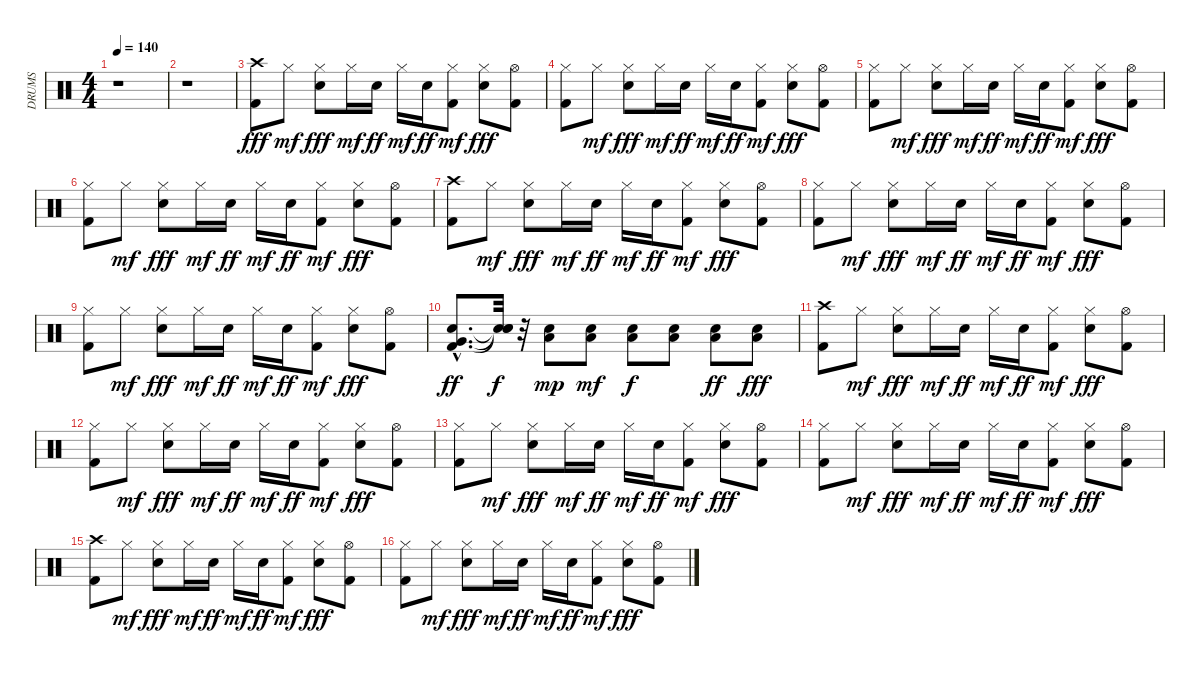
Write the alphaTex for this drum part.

\track ("DRUMS" "DRUMS") {instrument percussion}
\staff {score}
\articulation defaults
\ts (4 4)
\tempo 140
\clef neutral
\ks c
r.1{dy fff} |
r.1 |
("Kick (hit) 2" "Crash high (hit)").8 "Hi-Hat (closed)".8{dy mf} ("Hi-Hat (closed)" "Electric Snare (hit)").8{dy fff} "Hi-Hat (closed)".16{dy mf} "Electric Snare (hit)".16{dy ff} "Hi-Hat (closed)".16{dy mf} "Electric Snare (hit)".16{dy ff} ("Kick (hit) 2" "Hi-Hat (closed)").8{dy mf} ("Hi-Hat (closed)" "Electric Snare (hit)").8{dy fff} ("Kick (hit) 2" "Hi-Hat (open)").8 |
("Kick (hit) 2" "Hi-Hat (closed)").8 "Hi-Hat (closed)".8{dy mf} ("Hi-Hat (closed)" "Electric Snare (hit)").8{dy fff} "Hi-Hat (closed)".16{dy mf} "Electric Snare (hit)".16{dy ff} "Hi-Hat (closed)".16{dy mf} "Electric Snare (hit)".16{dy ff} ("Kick (hit) 2" "Hi-Hat (closed)").8{dy mf} ("Hi-Hat (closed)" "Electric Snare (hit)").8{dy fff} ("Kick (hit) 2" "Hi-Hat (open)").8 |
("Kick (hit) 2" "Hi-Hat (closed)").8 "Hi-Hat (closed)".8{dy mf} ("Hi-Hat (closed)" "Electric Snare (hit)").8{dy fff} "Hi-Hat (closed)".16{dy mf} "Electric Snare (hit)".16{dy ff} "Hi-Hat (closed)".16{dy mf} "Electric Snare (hit)".16{dy ff} ("Kick (hit) 2" "Hi-Hat (closed)").8{dy mf} ("Hi-Hat (closed)" "Electric Snare (hit)").8{dy fff} ("Kick (hit) 2" "Hi-Hat (open)").8 |
("Kick (hit) 2" "Hi-Hat (closed)").8 "Hi-Hat (closed)".8{dy mf} ("Hi-Hat (closed)" "Electric Snare (hit)").8{dy fff} "Hi-Hat (closed)".16{dy mf} "Electric Snare (hit)".16{dy ff} "Hi-Hat (closed)".16{dy mf} "Electric Snare (hit)".16{dy ff} ("Kick (hit) 2" "Hi-Hat (closed)").8{dy mf} ("Hi-Hat (closed)" "Electric Snare (hit)").8{dy fff} ("Kick (hit) 2" "Hi-Hat (open)").8 |
("Kick (hit) 2" "Crash high (hit)").8 "Hi-Hat (closed)".8{dy mf} ("Hi-Hat (closed)" "Electric Snare (hit)").8{dy fff} "Hi-Hat (closed)".16{dy mf} "Electric Snare (hit)".16{dy ff} "Hi-Hat (closed)".16{dy mf} "Electric Snare (hit)".16{dy ff} ("Kick (hit) 2" "Hi-Hat (closed)").8{dy mf} ("Hi-Hat (closed)" "Electric Snare (hit)").8{dy fff} ("Kick (hit) 2" "Hi-Hat (open)").8 |
("Kick (hit) 2" "Hi-Hat (closed)").8 "Hi-Hat (closed)".8{dy mf} ("Hi-Hat (closed)" "Electric Snare (hit)").8{dy fff} "Hi-Hat (closed)".16{dy mf} "Electric Snare (hit)".16{dy ff} "Hi-Hat (closed)".16{dy mf} "Electric Snare (hit)".16{dy ff} ("Kick (hit) 2" "Hi-Hat (closed)").8{dy mf} ("Hi-Hat (closed)" "Electric Snare (hit)").8{dy fff} ("Kick (hit) 2" "Hi-Hat (open)").8 |
("Kick (hit) 2" "Hi-Hat (closed)").8 "Hi-Hat (closed)".8{dy mf} ("Hi-Hat (closed)" "Electric Snare (hit)").8{dy fff} "Hi-Hat (closed)".16{dy mf} "Electric Snare (hit)".16{dy ff} "Hi-Hat (closed)".16{dy mf} "Electric Snare (hit)".16{dy ff} ("Kick (hit) 2" "Hi-Hat (closed)").8{dy mf} ("Hi-Hat (closed)" "Electric Snare (hit)").8{dy fff} ("Kick (hit) 2" "Hi-Hat (open)").8 |
("Kick (hit) 2"{hac} "Electric Snare (hit)"{hac} "Very Low Tom (hit)"{hac}).8{d dy ff} ("Snare (hit)"{t} "Snare (hit)"{t} "Snare (hit)"{t}).32{dy f} r.32 ("Low Tom (hit)" "Electric Snare (hit)").8{dy mp} ("Low Tom (hit)" "Electric Snare (hit)").8{dy mf} ("Low Tom (hit)" "Electric Snare (hit)").8{dy f} ("Low Tom (hit)" "Electric Snare (hit)").8 ("Low Tom (hit)" "Electric Snare (hit)").8{dy ff} ("Low Tom (hit)" "Electric Snare (hit)").8{dy fff} |
("Kick (hit) 2" "Crash high (hit)").8 "Hi-Hat (closed)".8{dy mf} ("Hi-Hat (closed)" "Electric Snare (hit)").8{dy fff} "Hi-Hat (closed)".16{dy mf} "Electric Snare (hit)".16{dy ff} "Hi-Hat (closed)".16{dy mf} "Electric Snare (hit)".16{dy ff} ("Kick (hit) 2" "Hi-Hat (closed)").8{dy mf} ("Hi-Hat (closed)" "Electric Snare (hit)").8{dy fff} ("Kick (hit) 2" "Hi-Hat (open)").8 |
("Kick (hit) 2" "Hi-Hat (closed)").8 "Hi-Hat (closed)".8{dy mf} ("Hi-Hat (closed)" "Electric Snare (hit)").8{dy fff} "Hi-Hat (closed)".16{dy mf} "Electric Snare (hit)".16{dy ff} "Hi-Hat (closed)".16{dy mf} "Electric Snare (hit)".16{dy ff} ("Kick (hit) 2" "Hi-Hat (closed)").8{dy mf} ("Hi-Hat (closed)" "Electric Snare (hit)").8{dy fff} ("Kick (hit) 2" "Hi-Hat (open)").8 |
("Kick (hit) 2" "Hi-Hat (closed)").8 "Hi-Hat (closed)".8{dy mf} ("Hi-Hat (closed)" "Electric Snare (hit)").8{dy fff} "Hi-Hat (closed)".16{dy mf} "Electric Snare (hit)".16{dy ff} "Hi-Hat (closed)".16{dy mf} "Electric Snare (hit)".16{dy ff} ("Kick (hit) 2" "Hi-Hat (closed)").8{dy mf} ("Hi-Hat (closed)" "Electric Snare (hit)").8{dy fff} ("Kick (hit) 2" "Hi-Hat (open)").8 |
("Kick (hit) 2" "Hi-Hat (closed)").8 "Hi-Hat (closed)".8{dy mf} ("Hi-Hat (closed)" "Electric Snare (hit)").8{dy fff} "Hi-Hat (closed)".16{dy mf} "Electric Snare (hit)".16{dy ff} "Hi-Hat (closed)".16{dy mf} "Electric Snare (hit)".16{dy ff} ("Kick (hit) 2" "Hi-Hat (closed)").8{dy mf} ("Hi-Hat (closed)" "Electric Snare (hit)").8{dy fff} ("Kick (hit) 2" "Hi-Hat (open)").8 |
("Kick (hit) 2" "Crash high (hit)").8 "Hi-Hat (closed)".8{dy mf} ("Hi-Hat (closed)" "Electric Snare (hit)").8{dy fff} "Hi-Hat (closed)".16{dy mf} "Electric Snare (hit)".16{dy ff} "Hi-Hat (closed)".16{dy mf} "Electric Snare (hit)".16{dy ff} ("Kick (hit) 2" "Hi-Hat (closed)").8{dy mf} ("Hi-Hat (closed)" "Electric Snare (hit)").8{dy fff} ("Kick (hit) 2" "Hi-Hat (open)").8 |
("Kick (hit) 2" "Hi-Hat (closed)").8 "Hi-Hat (closed)".8{dy mf} ("Hi-Hat (closed)" "Electric Snare (hit)").8{dy fff} "Hi-Hat (closed)".16{dy mf} "Electric Snare (hit)".16{dy ff} "Hi-Hat (closed)".16{dy mf} "Electric Snare (hit)".16{dy ff} ("Kick (hit) 2" "Hi-Hat (closed)").8{dy mf} ("Hi-Hat (closed)" "Electric Snare (hit)").8{dy fff} ("Kick (hit) 2" "Hi-Hat (open)").8
